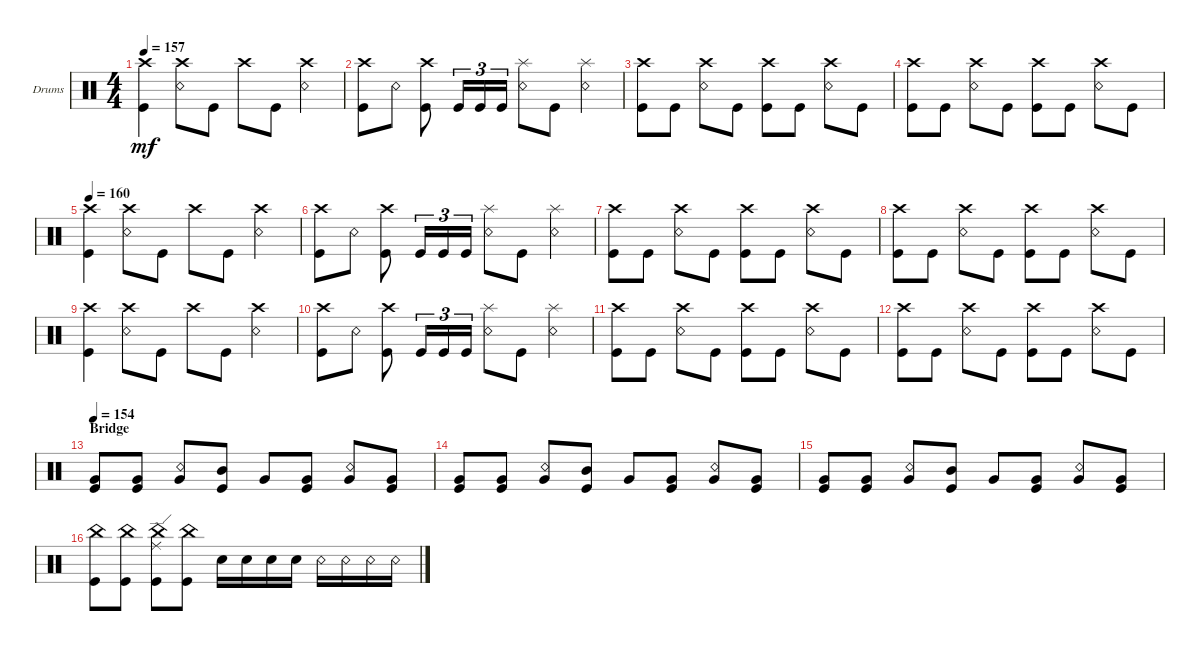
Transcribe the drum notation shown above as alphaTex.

\defaultSystemsLayout 4
\bracketExtendMode groupsimilarinstruments
\firstSystemTrackNameOrientation horizontal
\otherSystemsTrackNameOrientation horizontal
\track ("Drumkit" "Drums") {instrument percussion}
\staff {score}
\articulation defaults
\ts (4 4)
\tempo 157
\clef neutral
\ks c
("Kick (hit)" "Crash high (hit)").4{dy mf} ("Snare (rim shot)" "Crash high (hit)").8 "Kick (hit)".8 "Crash high (hit)".8 "Kick (hit)".8 ("Snare (rim shot)" "Crash high (hit)").4 |
("Kick (hit)" "Crash high (hit)").8 "Snare (rim shot)".8 ("Kick (hit)" "Crash high (hit)").8 "Kick (hit)".16{tu (3 2)} "Kick (hit)".16{tu (3 2)} "Kick (hit)".16{tu (3 2)} ("Snare (rim shot)" "Splash (hit)").8 "Kick (hit)".8 ("Snare (rim shot)" "Splash (hit)").4 |
("Kick (hit)" "Crash high (hit)").8 "Kick (hit)".8 ("Snare (rim shot)" "Crash high (hit)").8 "Kick (hit)".8 ("Kick (hit)" "Crash high (hit)").8 "Kick (hit)".8 ("Snare (rim shot)" "Crash high (hit)").8 "Kick (hit)".8 |
("Kick (hit)" "Crash high (hit)").8 "Kick (hit)".8 ("Snare (rim shot)" "Crash high (hit)").8 "Kick (hit)".8 ("Kick (hit)" "Crash high (hit)").8 "Kick (hit)".8 ("Snare (rim shot)" "Crash high (hit)").8 "Kick (hit)".8 |
\tempo 160
("Kick (hit)" "Crash high (hit)").4 ("Snare (rim shot)" "Crash high (hit)").8 "Kick (hit)".8 "Crash high (hit)".8 "Kick (hit)".8 ("Snare (rim shot)" "Crash high (hit)").4 |
("Kick (hit)" "Crash high (hit)").8 "Snare (rim shot)".8 ("Kick (hit)" "Crash high (hit)").8 "Kick (hit)".16{tu (3 2)} "Kick (hit)".16{tu (3 2)} "Kick (hit)".16{tu (3 2)} ("Snare (rim shot)" "Splash (hit)").8 "Kick (hit)".8 ("Snare (rim shot)" "Splash (hit)").4 |
("Kick (hit)" "Crash high (hit)").8 "Kick (hit)".8 ("Snare (rim shot)" "Crash high (hit)").8 "Kick (hit)".8 ("Kick (hit)" "Crash high (hit)").8 "Kick (hit)".8 ("Snare (rim shot)" "Crash high (hit)").8 "Kick (hit)".8 |
("Kick (hit)" "Crash high (hit)").8 "Kick (hit)".8 ("Snare (rim shot)" "Crash high (hit)").8 "Kick (hit)".8 ("Kick (hit)" "Crash high (hit)").8 "Kick (hit)".8 ("Snare (rim shot)" "Crash high (hit)").8 "Kick (hit)".8 |
("Kick (hit)" "Crash high (hit)").4 ("Snare (rim shot)" "Crash high (hit)").8 "Kick (hit)".8 "Crash high (hit)".8 "Kick (hit)".8 ("Snare (rim shot)" "Crash high (hit)").4 |
("Kick (hit)" "Crash high (hit)").8 "Snare (rim shot)".8 ("Kick (hit)" "Crash high (hit)").8 "Kick (hit)".16{tu (3 2)} "Kick (hit)".16{tu (3 2)} "Kick (hit)".16{tu (3 2)} ("Snare (rim shot)" "Splash (hit)").8 "Kick (hit)".8 ("Snare (rim shot)" "Splash (hit)").4 |
("Kick (hit)" "Crash high (hit)").8 "Kick (hit)".8 ("Snare (rim shot)" "Crash high (hit)").8 "Kick (hit)".8 ("Kick (hit)" "Crash high (hit)").8 "Kick (hit)".8 ("Snare (rim shot)" "Crash high (hit)").8 "Kick (hit)".8 |
("Kick (hit)" "Crash high (hit)").8 "Kick (hit)".8 ("Snare (rim shot)" "Crash high (hit)").8 "Kick (hit)".8 ("Kick (hit)" "Crash high (hit)").8 "Kick (hit)".8 ("Snare (rim shot)" "Crash high (hit)").8 "Kick (hit)".8 |
\section ("" "Bridge")
\tempo 154
("Kick (hit)" "Very Low Tom (hit)").8 ("Kick (hit)" "Very Low Tom (hit)").8 ("Snare (rim shot)" "Very Low Tom (hit)").8 ("Kick (hit)" "Mid Tom (hit)").8 "Very Low Tom (hit)".8 ("Kick (hit)" "Very Low Tom (hit)").8 ("Snare (rim shot)" "Very Low Tom (hit)").8 ("Kick (hit)" "Very Low Tom (hit)").8 |
("Kick (hit)" "Very Low Tom (hit)").8 ("Kick (hit)" "Very Low Tom (hit)").8 ("Snare (rim shot)" "Very Low Tom (hit)").8 ("Kick (hit)" "Mid Tom (hit)").8 "Very Low Tom (hit)".8 ("Kick (hit)" "Very Low Tom (hit)").8 ("Snare (rim shot)" "Very Low Tom (hit)").8 ("Kick (hit)" "Very Low Tom (hit)").8 |
("Kick (hit)" "Very Low Tom (hit)").8 ("Kick (hit)" "Very Low Tom (hit)").8 ("Snare (rim shot)" "Very Low Tom (hit)").8 ("Kick (hit)" "Mid Tom (hit)").8 "Very Low Tom (hit)".8 ("Kick (hit)" "Very Low Tom (hit)").8 ("Snare (rim shot)" "Very Low Tom (hit)").8 ("Kick (hit)" "Very Low Tom (hit)").8 |
("China (hit)" "Kick (hit)").8 ("China (hit)" "Kick (hit)").8 ("China (hit)" "Ride (edge)" "Kick (hit)").8 ("China (hit)" "Kick (hit)").8 "Snare (hit) 2".16 "Snare (hit) 2".16 "Snare (hit) 2".16 "Snare (hit) 2".16 "Snare (rim shot)".16 "Snare (rim shot)".16 "Snare (rim shot)".16 "Snare (rim shot)".16
